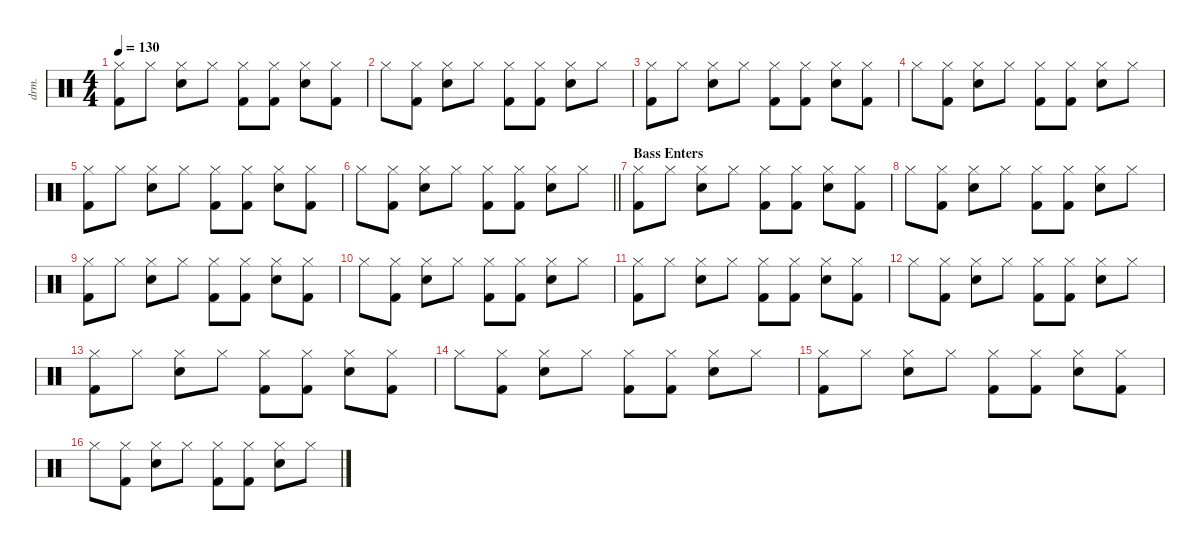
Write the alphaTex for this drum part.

\defaultSystemsLayout 4
\hideDynamics
\bracketExtendMode nobrackets
\otherSystemsTrackNameOrientation horizontal
\track ("Jimmy" "drm.") {instrument percussion}
\staff {score}
\articulation defaults
\ts (4 4)
\tempo 130
\clef neutral
\ks c
("Hi-Hat (closed)" "Kick (hit) 2").8{dy f beam Down} "Hi-Hat (closed)".8{beam Down} ("Hi-Hat (closed)" "Snare (hit) 2").8{beam Down} "Hi-Hat (closed)".8{beam Down} ("Hi-Hat (closed)" "Kick (hit) 2").8{beam Down} ("Hi-Hat (closed)" "Kick (hit) 2").8{beam Down} ("Hi-Hat (closed)" "Snare (hit) 2").8{beam Down} ("Hi-Hat (closed)" "Kick (hit) 2").8{beam Down} |
"Hi-Hat (closed)".8{beam Down} ("Hi-Hat (closed)" "Kick (hit) 2").8{beam Down} ("Hi-Hat (closed)" "Snare (hit) 2").8{beam Down} "Hi-Hat (closed)".8{beam Down} ("Hi-Hat (closed)" "Kick (hit) 2").8{beam Down} ("Hi-Hat (closed)" "Kick (hit) 2").8{beam Down} ("Hi-Hat (closed)" "Snare (hit) 2").8{beam Down} "Hi-Hat (closed)".8{beam Down} |
("Hi-Hat (closed)" "Kick (hit) 2").8{beam Down} "Hi-Hat (closed)".8{beam Down} ("Hi-Hat (closed)" "Snare (hit) 2").8{beam Down} "Hi-Hat (closed)".8{beam Down} ("Hi-Hat (closed)" "Kick (hit) 2").8{beam Down} ("Hi-Hat (closed)" "Kick (hit) 2").8{beam Down} ("Hi-Hat (closed)" "Snare (hit) 2").8{beam Down} ("Hi-Hat (closed)" "Kick (hit) 2").8{beam Down} |
"Hi-Hat (closed)".8{beam Down} ("Hi-Hat (closed)" "Kick (hit) 2").8{beam Down} ("Hi-Hat (closed)" "Snare (hit) 2").8{beam Down} "Hi-Hat (closed)".8{beam Down} ("Hi-Hat (closed)" "Kick (hit) 2").8{beam Down} ("Hi-Hat (closed)" "Kick (hit) 2").8{beam Down} ("Hi-Hat (closed)" "Snare (hit) 2").8{beam Down} "Hi-Hat (closed)".8{beam Down} |
("Hi-Hat (closed)" "Kick (hit) 2").8{beam Down} "Hi-Hat (closed)".8{beam Down} ("Hi-Hat (closed)" "Snare (hit) 2").8{beam Down} "Hi-Hat (closed)".8{beam Down} ("Hi-Hat (closed)" "Kick (hit) 2").8{beam Down} ("Hi-Hat (closed)" "Kick (hit) 2").8{beam Down} ("Hi-Hat (closed)" "Snare (hit) 2").8{beam Down} ("Hi-Hat (closed)" "Kick (hit) 2").8{beam Down} |
\barLineRight lightlight "Hi-Hat (closed)".8{beam Down}
("Hi-Hat (closed)" "Kick (hit) 2").8{beam Down} ("Hi-Hat (closed)" "Snare (hit) 2").8{beam Down} "Hi-Hat (closed)".8{beam Down} ("Hi-Hat (closed)" "Kick (hit) 2").8{beam Down} ("Hi-Hat (closed)" "Kick (hit) 2").8{beam Down} ("Hi-Hat (closed)" "Snare (hit) 2").8{beam Down} "Hi-Hat (closed)".8{beam Down} |
\section ("" "Bass Enters")
("Hi-Hat (closed)" "Kick (hit) 2").8{beam Down} "Hi-Hat (closed)".8{beam Down} ("Hi-Hat (closed)" "Snare (hit) 2").8{beam Down} "Hi-Hat (closed)".8{beam Down} ("Hi-Hat (closed)" "Kick (hit) 2").8{beam Down} ("Hi-Hat (closed)" "Kick (hit) 2").8{beam Down} ("Hi-Hat (closed)" "Snare (hit) 2").8{beam Down} ("Hi-Hat (closed)" "Kick (hit) 2").8{beam Down} |
"Hi-Hat (closed)".8{beam Down} ("Hi-Hat (closed)" "Kick (hit) 2").8{beam Down} ("Hi-Hat (closed)" "Snare (hit) 2").8{beam Down} "Hi-Hat (closed)".8{beam Down} ("Hi-Hat (closed)" "Kick (hit) 2").8{beam Down} ("Hi-Hat (closed)" "Kick (hit) 2").8{beam Down} ("Hi-Hat (closed)" "Snare (hit) 2").8{beam Down} "Hi-Hat (closed)".8{beam Down} |
("Hi-Hat (closed)" "Kick (hit) 2").8{beam Down} "Hi-Hat (closed)".8{beam Down} ("Hi-Hat (closed)" "Snare (hit) 2").8{beam Down} "Hi-Hat (closed)".8{beam Down} ("Hi-Hat (closed)" "Kick (hit) 2").8{beam Down} ("Hi-Hat (closed)" "Kick (hit) 2").8{beam Down} ("Hi-Hat (closed)" "Snare (hit) 2").8{beam Down} ("Hi-Hat (closed)" "Kick (hit) 2").8{beam Down} |
"Hi-Hat (closed)".8{beam Down} ("Hi-Hat (closed)" "Kick (hit) 2").8{beam Down} ("Hi-Hat (closed)" "Snare (hit) 2").8{beam Down} "Hi-Hat (closed)".8{beam Down} ("Hi-Hat (closed)" "Kick (hit) 2").8{beam Down} ("Hi-Hat (closed)" "Kick (hit) 2").8{beam Down} ("Hi-Hat (closed)" "Snare (hit) 2").8{beam Down} "Hi-Hat (closed)".8{beam Down} |
("Hi-Hat (closed)" "Kick (hit) 2").8{beam Down} "Hi-Hat (closed)".8{beam Down} ("Hi-Hat (closed)" "Snare (hit) 2").8{beam Down} "Hi-Hat (closed)".8{beam Down} ("Hi-Hat (closed)" "Kick (hit) 2").8{beam Down} ("Hi-Hat (closed)" "Kick (hit) 2").8{beam Down} ("Hi-Hat (closed)" "Snare (hit) 2").8{beam Down} ("Hi-Hat (closed)" "Kick (hit) 2").8{beam Down} |
"Hi-Hat (closed)".8{beam Down} ("Hi-Hat (closed)" "Kick (hit) 2").8{beam Down} ("Hi-Hat (closed)" "Snare (hit) 2").8{beam Down} "Hi-Hat (closed)".8{beam Down} ("Hi-Hat (closed)" "Kick (hit) 2").8{beam Down} ("Hi-Hat (closed)" "Kick (hit) 2").8{beam Down} ("Hi-Hat (closed)" "Snare (hit) 2").8{beam Down} "Hi-Hat (closed)".8{beam Down} |
("Hi-Hat (closed)" "Kick (hit) 2").8{beam Down} "Hi-Hat (closed)".8{beam Down} ("Hi-Hat (closed)" "Snare (hit) 2").8{beam Down} "Hi-Hat (closed)".8{beam Down} ("Hi-Hat (closed)" "Kick (hit) 2").8{beam Down} ("Hi-Hat (closed)" "Kick (hit) 2").8{beam Down} ("Hi-Hat (closed)" "Snare (hit) 2").8{beam Down} ("Hi-Hat (closed)" "Kick (hit) 2").8{beam Down} |
"Hi-Hat (closed)".8{beam Down} ("Hi-Hat (closed)" "Kick (hit) 2").8{beam Down} ("Hi-Hat (closed)" "Snare (hit) 2").8{beam Down} "Hi-Hat (closed)".8{beam Down} ("Hi-Hat (closed)" "Kick (hit) 2").8{beam Down} ("Hi-Hat (closed)" "Kick (hit) 2").8{beam Down} ("Hi-Hat (closed)" "Snare (hit) 2").8{beam Down} "Hi-Hat (closed)".8{beam Down} |
("Hi-Hat (closed)" "Kick (hit) 2").8{beam Down} "Hi-Hat (closed)".8{beam Down} ("Hi-Hat (closed)" "Snare (hit) 2").8{beam Down} "Hi-Hat (closed)".8{beam Down} ("Hi-Hat (closed)" "Kick (hit) 2").8{beam Down} ("Hi-Hat (closed)" "Kick (hit) 2").8{beam Down} ("Hi-Hat (closed)" "Snare (hit) 2").8{beam Down} ("Hi-Hat (closed)" "Kick (hit) 2").8{beam Down} |
"Hi-Hat (closed)".8{beam Down} ("Hi-Hat (closed)" "Kick (hit) 2").8{beam Down} ("Hi-Hat (closed)" "Snare (hit) 2").8{beam Down} "Hi-Hat (closed)".8{beam Down} ("Hi-Hat (closed)" "Kick (hit) 2").8{beam Down} ("Hi-Hat (closed)" "Kick (hit) 2").8{beam Down} ("Hi-Hat (closed)" "Snare (hit) 2").8{beam Down} "Hi-Hat (closed)".8{beam Down}
